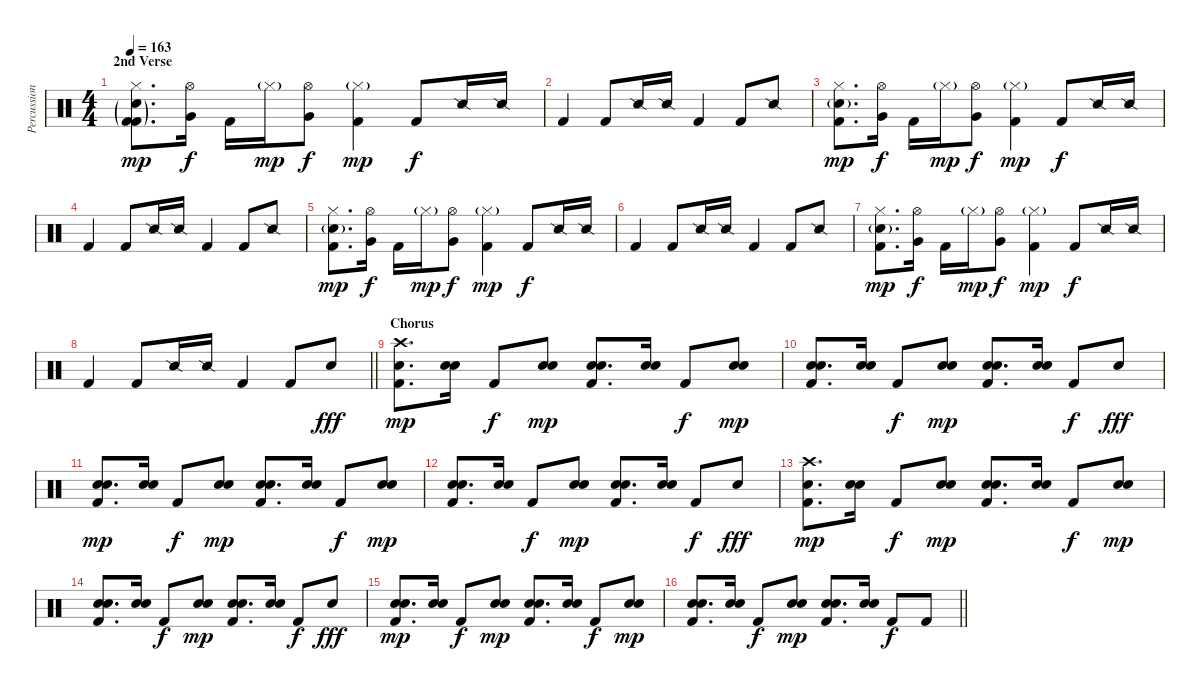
\track ("Percussion" "Percussion") {instrument percussion}
\staff {score}
\articulation defaults
\ts (4 4)
\section ("" "2nd Verse")
\tempo 163
\clef neutral
\ks c
("Kick (hit) 2"{g} "Hi-Hat (closed)" "Snare (hit) 2"{g} "Kick (hit) 2").8{d dy mp} ("Hi-Hat (open)" "Very Low Tom (hit)").16{dy f} "Kick (hit) 2".16 "Hi-Hat (closed)"{g}.16{dy mp} ("Hi-Hat (open)" "Very Low Tom (hit)").8{dy f} ("Hi-Hat (closed)"{g} "Kick (hit) 2").4{dy mp} "Kick (hit) 2".8{dy f} "Snare (side stick) 2".16 "Snare (side stick) 2".16 |
"Kick (hit) 2".4 "Kick (hit) 2".8 "Snare (side stick) 2".16 "Snare (side stick) 2".16 "Kick (hit) 2".4 "Kick (hit) 2".8 "Snare (side stick) 2".8 |
("Hi-Hat (closed)" "Snare (hit) 2"{g} "Kick (hit) 2").8{d dy mp} ("Hi-Hat (open)" "Very Low Tom (hit)").16{dy f} "Kick (hit) 2".16 "Hi-Hat (closed)"{g}.16{dy mp} ("Hi-Hat (open)" "Very Low Tom (hit)").8{dy f} ("Hi-Hat (closed)"{g} "Kick (hit) 2").4{dy mp} "Kick (hit) 2".8{dy f} "Snare (side stick) 2".16 "Snare (side stick) 2".16 |
"Kick (hit) 2".4 "Kick (hit) 2".8 "Snare (side stick) 2".16 "Snare (side stick) 2".16 "Kick (hit) 2".4 "Kick (hit) 2".8 "Snare (side stick) 2".8 |
("Hi-Hat (closed)" "Snare (hit) 2"{g} "Kick (hit) 2").8{d dy mp} ("Hi-Hat (open)" "Very Low Tom (hit)").16{dy f} "Kick (hit) 2".16 "Hi-Hat (closed)"{g}.16{dy mp} ("Hi-Hat (open)" "Very Low Tom (hit)").8{dy f} ("Hi-Hat (closed)"{g} "Kick (hit) 2").4{dy mp} "Kick (hit) 2".8{dy f} "Snare (side stick) 2".16 "Snare (side stick) 2".16 |
"Kick (hit) 2".4 "Kick (hit) 2".8 "Snare (side stick) 2".16 "Snare (side stick) 2".16 "Kick (hit) 2".4 "Kick (hit) 2".8 "Snare (side stick) 2".8 |
("Hi-Hat (closed)" "Snare (hit) 2"{g} "Kick (hit) 2").8{d dy mp} ("Hi-Hat (open)" "Very Low Tom (hit)").16{dy f} "Kick (hit) 2".16 "Hi-Hat (closed)"{g}.16{dy mp} ("Hi-Hat (open)" "Very Low Tom (hit)").8{dy f} ("Hi-Hat (closed)"{g} "Kick (hit) 2").4{dy mp} "Kick (hit) 2".8{dy f} "Snare (side stick) 2".16 "Snare (side stick) 2".16 |
\barLineRight lightlight "Kick (hit) 2".4 "Kick (hit) 2".8 "Snare (side stick) 2".16 "Snare (side stick) 2".16 "Kick (hit) 2".4 "Kick (hit) 2".8 "Snare (hit) 2".8{dy fff}
|
\section ("" "Chorus")
("Crash high (hit)" "Snare (hit) 2" "Kick (hit) 2").8{d bd 120 dy mp} ("Snare (hit) 2" "Snare (hit) 2").16{bd 120} "Kick (hit) 2".8{dy f} ("Snare (hit) 2" "Snare (hit) 2").8{bd 120 dy mp} ("Snare (hit) 2" "Snare (hit) 2" "Kick (hit) 2").8{d bd 120} ("Snare (hit) 2" "Snare (hit) 2").16{bd 120} "Kick (hit) 2".8{dy f} ("Snare (hit) 2" "Snare (hit) 2").8{bd 120 dy mp} |
("Snare (hit) 2" "Snare (hit) 2" "Kick (hit) 2").8{d bd 120} ("Snare (hit) 2" "Snare (hit) 2").16{bd 120} "Kick (hit) 2".8{dy f} ("Snare (hit) 2" "Snare (hit) 2").8{bd 120 dy mp} ("Snare (hit) 2" "Snare (hit) 2" "Kick (hit) 2").8{d bd 120} ("Snare (hit) 2" "Snare (hit) 2").16{bd 120} "Kick (hit) 2".8{dy f} "Snare (hit) 2".8{dy fff} |
("Snare (hit) 2" "Snare (hit) 2" "Kick (hit) 2").8{d bd 120 dy mp} ("Snare (hit) 2" "Snare (hit) 2").16{bd 120} "Kick (hit) 2".8{dy f} ("Snare (hit) 2" "Snare (hit) 2").8{bd 120 dy mp} ("Snare (hit) 2" "Snare (hit) 2" "Kick (hit) 2").8{d bd 120} ("Snare (hit) 2" "Snare (hit) 2").16{bd 120} "Kick (hit) 2".8{dy f} ("Snare (hit) 2" "Snare (hit) 2").8{bd 120 dy mp} |
("Snare (hit) 2" "Snare (hit) 2" "Kick (hit) 2").8{d bd 120} ("Snare (hit) 2" "Snare (hit) 2").16{bd 120} "Kick (hit) 2".8{dy f} ("Snare (hit) 2" "Snare (hit) 2").8{bd 120 dy mp} ("Snare (hit) 2" "Snare (hit) 2" "Kick (hit) 2").8{d bd 120} ("Snare (hit) 2" "Snare (hit) 2").16{bd 120} "Kick (hit) 2".8{dy f} "Snare (hit) 2".8{dy fff} |
("Crash high (hit)" "Snare (hit) 2" "Kick (hit) 2").8{d bd 120 dy mp} ("Snare (hit) 2" "Snare (hit) 2").16{bd 120} "Kick (hit) 2".8{dy f} ("Snare (hit) 2" "Snare (hit) 2").8{bd 120 dy mp} ("Snare (hit) 2" "Snare (hit) 2" "Kick (hit) 2").8{d bd 120} ("Snare (hit) 2" "Snare (hit) 2").16{bd 120} "Kick (hit) 2".8{dy f} ("Snare (hit) 2" "Snare (hit) 2").8{bd 120 dy mp} |
("Snare (hit) 2" "Snare (hit) 2" "Kick (hit) 2").8{d bd 120} ("Snare (hit) 2" "Snare (hit) 2").16{bd 120} "Kick (hit) 2".8{dy f} ("Snare (hit) 2" "Snare (hit) 2").8{bd 120 dy mp} ("Snare (hit) 2" "Snare (hit) 2" "Kick (hit) 2").8{d bd 120} ("Snare (hit) 2" "Snare (hit) 2").16{bd 120} "Kick (hit) 2".8{dy f} "Snare (hit) 2".8{dy fff} |
("Snare (hit) 2" "Snare (hit) 2" "Kick (hit) 2").8{d bd 120 dy mp} ("Snare (hit) 2" "Snare (hit) 2").16{bd 120} "Kick (hit) 2".8{dy f} ("Snare (hit) 2" "Snare (hit) 2").8{bd 120 dy mp} ("Snare (hit) 2" "Snare (hit) 2" "Kick (hit) 2").8{d bd 120} ("Snare (hit) 2" "Snare (hit) 2").16{bd 120} "Kick (hit) 2".8{dy f} ("Snare (hit) 2" "Snare (hit) 2").8{bd 120 dy mp} |
\barLineRight lightlight
("Snare (hit) 2" "Snare (hit) 2" "Kick (hit) 2").8{d bd 120} ("Snare (hit) 2" "Snare (hit) 2").16{bd 120} "Kick (hit) 2".8{dy f} ("Snare (hit) 2" "Snare (hit) 2").8{bd 120 dy mp} ("Snare (hit) 2" "Snare (hit) 2" "Kick (hit) 2").8{d bd 120} ("Snare (hit) 2" "Snare (hit) 2").16{bd 120} "Kick (hit) 2".8{dy f} "Kick (hit) 2".8
